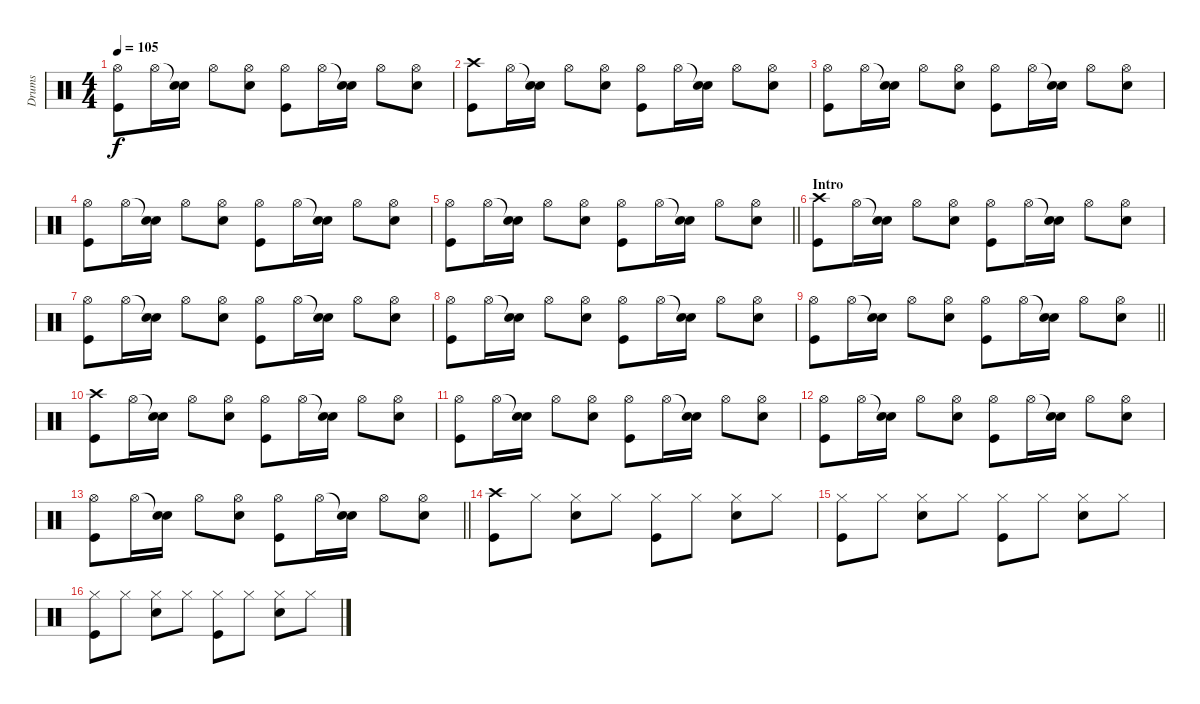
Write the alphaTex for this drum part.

\track ("Drums" "Drums") {instrument percussion}
\staff {score}
\articulation defaults
\ts (4 4)
\tempo 105
\clef neutral
\ks c
("Hi-Hat (open)" "Kick (hit)").8{dy f} "Hi-Hat (open)".16 ("Snare (hit)"{t} "Electric Snare (hit)").16 "Hi-Hat (open)".8 ("Hi-Hat (open)" "Electric Snare (hit)").8 ("Hi-Hat (open)" "Kick (hit)").8 "Hi-Hat (open)".16 ("Snare (hit)"{t} "Electric Snare (hit)").16 "Hi-Hat (open)".8 ("Hi-Hat (open)" "Electric Snare (hit)").8 |
("Crash high (hit)" "Kick (hit)").8 "Hi-Hat (open)".16 ("Snare (hit)"{t} "Electric Snare (hit)").16 "Hi-Hat (open)".8 ("Hi-Hat (open)" "Electric Snare (hit)").8 ("Hi-Hat (open)" "Kick (hit)").8 "Hi-Hat (open)".16 ("Snare (hit)"{t} "Electric Snare (hit)").16 "Hi-Hat (open)".8 ("Hi-Hat (open)" "Electric Snare (hit)").8 |
("Hi-Hat (open)" "Kick (hit)").8 "Hi-Hat (open)".16 ("Snare (hit)"{t} "Electric Snare (hit)").16 "Hi-Hat (open)".8 ("Hi-Hat (open)" "Electric Snare (hit)").8 ("Hi-Hat (open)" "Kick (hit)").8 "Hi-Hat (open)".16 ("Snare (hit)"{t} "Electric Snare (hit)").16 "Hi-Hat (open)".8 ("Hi-Hat (open)" "Electric Snare (hit)").8 |
("Hi-Hat (open)" "Kick (hit)").8 "Hi-Hat (open)".16 ("Snare (hit)"{t} "Electric Snare (hit)").16 "Hi-Hat (open)".8 ("Hi-Hat (open)" "Electric Snare (hit)").8 ("Hi-Hat (open)" "Kick (hit)").8 "Hi-Hat (open)".16 ("Snare (hit)"{t} "Electric Snare (hit)").16 "Hi-Hat (open)".8 ("Hi-Hat (open)" "Electric Snare (hit)").8 |
\barLineRight lightlight
("Hi-Hat (open)" "Kick (hit)").8 "Hi-Hat (open)".16 ("Snare (hit)"{t} "Electric Snare (hit)").16 "Hi-Hat (open)".8 ("Hi-Hat (open)" "Electric Snare (hit)").8 ("Hi-Hat (open)" "Kick (hit)").8 "Hi-Hat (open)".16 ("Snare (hit)"{t} "Electric Snare (hit)").16 "Hi-Hat (open)".8 ("Hi-Hat (open)" "Electric Snare (hit)").8 |
\section ("" "Intro")
("Crash high (hit)" "Kick (hit)").8 "Hi-Hat (open)".16 ("Snare (hit)"{t} "Electric Snare (hit)").16 "Hi-Hat (open)".8 ("Hi-Hat (open)" "Electric Snare (hit)").8 ("Hi-Hat (open)" "Kick (hit)").8 "Hi-Hat (open)".16 ("Snare (hit)"{t} "Electric Snare (hit)").16 "Hi-Hat (open)".8 ("Hi-Hat (open)" "Electric Snare (hit)").8 |
("Hi-Hat (open)" "Kick (hit)").8 "Hi-Hat (open)".16 ("Snare (hit)"{t} "Electric Snare (hit)").16 "Hi-Hat (open)".8 ("Hi-Hat (open)" "Electric Snare (hit)").8 ("Hi-Hat (open)" "Kick (hit)").8 "Hi-Hat (open)".16 ("Snare (hit)"{t} "Electric Snare (hit)").16 "Hi-Hat (open)".8 ("Hi-Hat (open)" "Electric Snare (hit)").8 |
("Hi-Hat (open)" "Kick (hit)").8 "Hi-Hat (open)".16 ("Snare (hit)"{t} "Electric Snare (hit)").16 "Hi-Hat (open)".8 ("Hi-Hat (open)" "Electric Snare (hit)").8 ("Hi-Hat (open)" "Kick (hit)").8 "Hi-Hat (open)".16 ("Snare (hit)"{t} "Electric Snare (hit)").16 "Hi-Hat (open)".8 ("Hi-Hat (open)" "Electric Snare (hit)").8 |
\barLineRight lightlight
("Hi-Hat (open)" "Kick (hit)").8 "Hi-Hat (open)".16 ("Snare (hit)"{t} "Electric Snare (hit)").16 "Hi-Hat (open)".8 ("Hi-Hat (open)" "Electric Snare (hit)").8 ("Hi-Hat (open)" "Kick (hit)").8 "Hi-Hat (open)".16 ("Snare (hit)"{t} "Electric Snare (hit)").16 "Hi-Hat (open)".8 ("Hi-Hat (open)" "Electric Snare (hit)").8 |
("Crash high (hit)" "Kick (hit)").8 "Hi-Hat (open)".16 ("Snare (hit)"{t} "Electric Snare (hit)").16 "Hi-Hat (open)".8 ("Hi-Hat (open)" "Electric Snare (hit)").8 ("Hi-Hat (open)" "Kick (hit)").8 "Hi-Hat (open)".16 ("Snare (hit)"{t} "Electric Snare (hit)").16 "Hi-Hat (open)".8 ("Hi-Hat (open)" "Electric Snare (hit)").8 |
("Hi-Hat (open)" "Kick (hit)").8 "Hi-Hat (open)".16 ("Snare (hit)"{t} "Electric Snare (hit)").16 "Hi-Hat (open)".8 ("Hi-Hat (open)" "Electric Snare (hit)").8 ("Hi-Hat (open)" "Kick (hit)").8 "Hi-Hat (open)".16 ("Snare (hit)"{t} "Electric Snare (hit)").16 "Hi-Hat (open)".8 ("Hi-Hat (open)" "Electric Snare (hit)").8 |
("Hi-Hat (open)" "Kick (hit)").8 "Hi-Hat (open)".16 ("Snare (hit)"{t} "Electric Snare (hit)").16 "Hi-Hat (open)".8 ("Hi-Hat (open)" "Electric Snare (hit)").8 ("Hi-Hat (open)" "Kick (hit)").8 "Hi-Hat (open)".16 ("Snare (hit)"{t} "Electric Snare (hit)").16 "Hi-Hat (open)".8 ("Hi-Hat (open)" "Electric Snare (hit)").8 |
\barLineRight lightlight
("Hi-Hat (open)" "Kick (hit)").8 "Hi-Hat (open)".16 ("Snare (hit)"{t} "Electric Snare (hit)").16 "Hi-Hat (open)".8 ("Hi-Hat (open)" "Electric Snare (hit)").8 ("Hi-Hat (open)" "Kick (hit)").8 "Hi-Hat (open)".16 ("Snare (hit)"{t} "Electric Snare (hit)").16 "Hi-Hat (open)".8 ("Hi-Hat (open)" "Electric Snare (hit)").8 |
("Crash high (hit)" "Kick (hit)").8 "Hi-Hat (closed)".8 ("Hi-Hat (closed)" "Electric Snare (hit)").8 "Hi-Hat (closed)".8 ("Hi-Hat (closed)" "Kick (hit)").8 "Hi-Hat (closed)".8 ("Hi-Hat (closed)" "Electric Snare (hit)").8 "Hi-Hat (closed)".8 |
("Hi-Hat (closed)" "Kick (hit)").8 "Hi-Hat (closed)".8 ("Hi-Hat (closed)" "Electric Snare (hit)").8 "Hi-Hat (closed)".8 ("Hi-Hat (closed)" "Kick (hit)").8 "Hi-Hat (closed)".8 ("Hi-Hat (closed)" "Electric Snare (hit)").8 "Hi-Hat (closed)".8 |
("Hi-Hat (closed)" "Kick (hit)").8 "Hi-Hat (closed)".8 ("Hi-Hat (closed)" "Electric Snare (hit)").8 "Hi-Hat (closed)".8 ("Hi-Hat (closed)" "Kick (hit)").8 "Hi-Hat (closed)".8 ("Hi-Hat (closed)" "Electric Snare (hit)").8 "Hi-Hat (closed)".8
